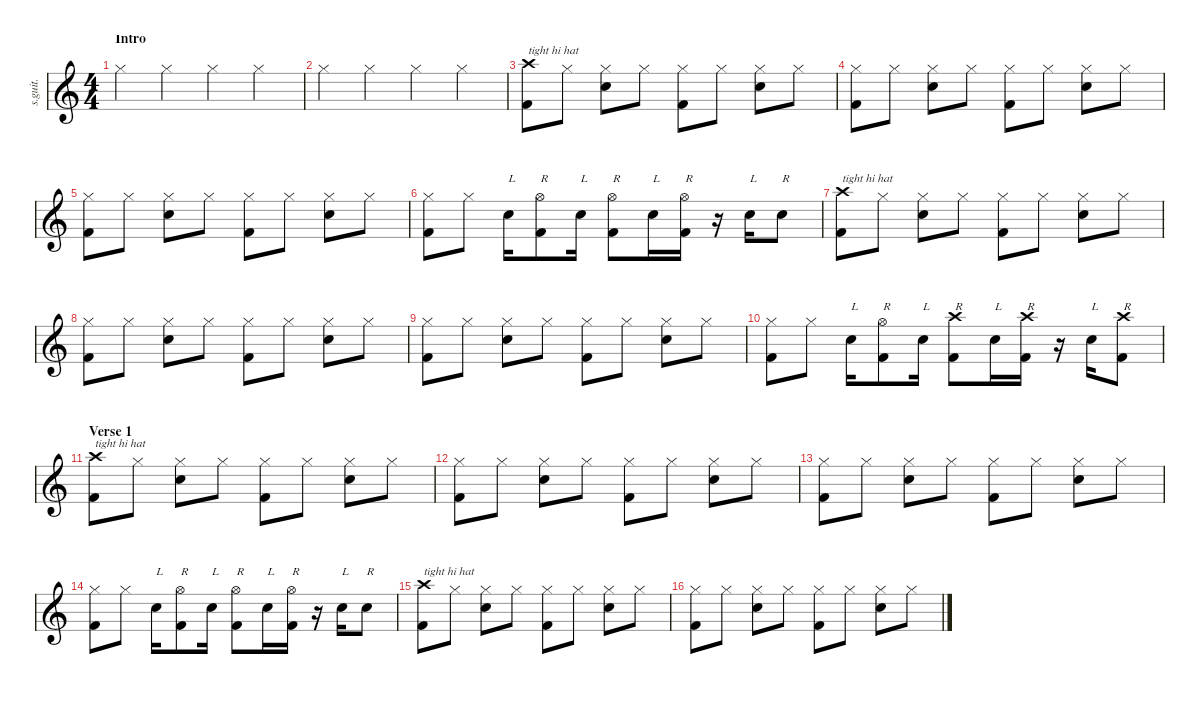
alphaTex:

\defaultSystemsLayout 4
\hideDynamics
\bracketExtendMode nobrackets
\track ("Phil Rudd - Drums" "s.guit.") {instrument percussion}
\staff {score}
\articulation defaults
\ts (4 4)
\beaming (8 2 2 2 2)
\section ("" "Intro")
\tempo (92 hide)
\clef g2
\ks c "Hi-Hat (closed)".4{lyrics (0 "") lyrics (1 "") lyrics (2 "") lyrics (3 "") lyrics (4 "") dy f} "Hi-Hat (closed)".4{lyrics (0 "") lyrics (1 "") lyrics (2 "") lyrics (3 "") lyrics (4 "")} "Hi-Hat (closed)".4{lyrics (0 "") lyrics (1 "") lyrics (2 "") lyrics (3 "") lyrics (4 "")} "Hi-Hat (closed)".4{lyrics (0 "") lyrics (1 "") lyrics (2 "") lyrics (3 "") lyrics (4 "")}
|
"Hi-Hat (closed)".4{lyrics (0 "") lyrics (1 "") lyrics (2 "") lyrics (3 "") lyrics (4 "")} "Hi-Hat (closed)".4{lyrics (0 "") lyrics (1 "") lyrics (2 "") lyrics (3 "") lyrics (4 "")} "Hi-Hat (closed)".4{lyrics (0 "") lyrics (1 "") lyrics (2 "") lyrics (3 "") lyrics (4 "")} "Hi-Hat (closed)".4{lyrics (0 "") lyrics (1 "") lyrics (2 "") lyrics (3 "") lyrics (4 "")} |
("Crash high (hit)" "Kick (hit) 2").8{txt "tight hi hat" lyrics (0 "") lyrics (1 "") lyrics (2 "") lyrics (3 "") lyrics (4 "")} "Hi-Hat (closed)".8{lyrics (0 "") lyrics (1 "") lyrics (2 "") lyrics (3 "") lyrics (4 "")} ("Hi-Hat (closed)" "Snare (hit) 2").8{lyrics (0 "") lyrics (1 "") lyrics (2 "") lyrics (3 "") lyrics (4 "")} "Hi-Hat (closed)".8{lyrics (0 "") lyrics (1 "") lyrics (2 "") lyrics (3 "") lyrics (4 "")} ("Hi-Hat (closed)" "Kick (hit) 2").8{lyrics (0 "") lyrics (1 "") lyrics (2 "") lyrics (3 "") lyrics (4 "")} "Hi-Hat (closed)".8{lyrics (0 "") lyrics (1 "") lyrics (2 "") lyrics (3 "") lyrics (4 "")} ("Hi-Hat (closed)" "Snare (hit) 2").8{lyrics (0 "") lyrics (1 "") lyrics (2 "") lyrics (3 "") lyrics (4 "")} "Hi-Hat (closed)".8{lyrics (0 "") lyrics (1 "") lyrics (2 "") lyrics (3 "") lyrics (4 "")} |
("Hi-Hat (closed)" "Kick (hit) 2").8{lyrics (0 "") lyrics (1 "") lyrics (2 "") lyrics (3 "") lyrics (4 "")} "Hi-Hat (closed)".8{lyrics (0 "") lyrics (1 "") lyrics (2 "") lyrics (3 "") lyrics (4 "")} ("Hi-Hat (closed)" "Snare (hit) 2").8{lyrics (0 "") lyrics (1 "") lyrics (2 "") lyrics (3 "") lyrics (4 "")} "Hi-Hat (closed)".8{lyrics (0 "") lyrics (1 "") lyrics (2 "") lyrics (3 "") lyrics (4 "")} ("Hi-Hat (closed)" "Kick (hit) 2").8{lyrics (0 "") lyrics (1 "") lyrics (2 "") lyrics (3 "") lyrics (4 "")} "Hi-Hat (closed)".8{lyrics (0 "") lyrics (1 "") lyrics (2 "") lyrics (3 "") lyrics (4 "")} ("Hi-Hat (closed)" "Snare (hit) 2").8{lyrics (0 "") lyrics (1 "") lyrics (2 "") lyrics (3 "") lyrics (4 "")} "Hi-Hat (closed)".8{lyrics (0 "") lyrics (1 "") lyrics (2 "") lyrics (3 "") lyrics (4 "")} |
("Hi-Hat (closed)" "Kick (hit) 2").8{lyrics (0 "") lyrics (1 "") lyrics (2 "") lyrics (3 "") lyrics (4 "")} "Hi-Hat (closed)".8{lyrics (0 "") lyrics (1 "") lyrics (2 "") lyrics (3 "") lyrics (4 "")} ("Hi-Hat (closed)" "Snare (hit) 2").8{lyrics (0 "") lyrics (1 "") lyrics (2 "") lyrics (3 "") lyrics (4 "")} "Hi-Hat (closed)".8{lyrics (0 "") lyrics (1 "") lyrics (2 "") lyrics (3 "") lyrics (4 "")} ("Hi-Hat (closed)" "Kick (hit) 2").8{lyrics (0 "") lyrics (1 "") lyrics (2 "") lyrics (3 "") lyrics (4 "")} "Hi-Hat (closed)".8{lyrics (0 "") lyrics (1 "") lyrics (2 "") lyrics (3 "") lyrics (4 "")} ("Hi-Hat (closed)" "Snare (hit) 2").8{lyrics (0 "") lyrics (1 "") lyrics (2 "") lyrics (3 "") lyrics (4 "")} "Hi-Hat (closed)".8{lyrics (0 "") lyrics (1 "") lyrics (2 "") lyrics (3 "") lyrics (4 "")} |
("Hi-Hat (closed)" "Kick (hit) 2").8{lyrics (0 "") lyrics (1 "") lyrics (2 "") lyrics (3 "") lyrics (4 "")} "Hi-Hat (closed)".8{lyrics (0 "") lyrics (1 "") lyrics (2 "") lyrics (3 "") lyrics (4 "")} "Snare (hit) 2".16{txt "L" lyrics (0 "") lyrics (1 "") lyrics (2 "") lyrics (3 "") lyrics (4 "")} ("Kick (hit) 2" "Hi-Hat (open)").8{txt "R" lyrics (0 "") lyrics (1 "") lyrics (2 "") lyrics (3 "") lyrics (4 "") dy p} "Snare (hit) 2".16{txt "L" lyrics (0 "") lyrics (1 "") lyrics (2 "") lyrics (3 "") lyrics (4 "") dy f} ("Kick (hit) 2" "Hi-Hat (open)").8{txt "R" lyrics (0 "") lyrics (1 "") lyrics (2 "") lyrics (3 "") lyrics (4 "") dy p} "Snare (hit) 2".16{txt "L" lyrics (0 "") lyrics (1 "") lyrics (2 "") lyrics (3 "") lyrics (4 "") dy f} ("Kick (hit) 2" "Hi-Hat (open)").16{txt "R" lyrics (0 "") lyrics (1 "") lyrics (2 "") lyrics (3 "") lyrics (4 "") dy p} r.16 "Snare (hit) 2".16{txt "L" lyrics (0 "") lyrics (1 "") lyrics (2 "") lyrics (3 "") lyrics (4 "") dy f} "Snare (hit) 2".8{txt "R" lyrics (0 "") lyrics (1 "") lyrics (2 "") lyrics (3 "") lyrics (4 "")} |
("Crash high (hit)" "Kick (hit) 2").8{txt "tight hi hat" lyrics (0 "") lyrics (1 "") lyrics (2 "") lyrics (3 "") lyrics (4 "")} "Hi-Hat (closed)".8{lyrics (0 "") lyrics (1 "") lyrics (2 "") lyrics (3 "") lyrics (4 "")} ("Hi-Hat (closed)" "Snare (hit) 2").8{lyrics (0 "") lyrics (1 "") lyrics (2 "") lyrics (3 "") lyrics (4 "")} "Hi-Hat (closed)".8{lyrics (0 "") lyrics (1 "") lyrics (2 "") lyrics (3 "") lyrics (4 "")} ("Hi-Hat (closed)" "Kick (hit) 2").8{lyrics (0 "") lyrics (1 "") lyrics (2 "") lyrics (3 "") lyrics (4 "")} "Hi-Hat (closed)".8{lyrics (0 "") lyrics (1 "") lyrics (2 "") lyrics (3 "") lyrics (4 "")} ("Hi-Hat (closed)" "Snare (hit) 2").8{lyrics (0 "") lyrics (1 "") lyrics (2 "") lyrics (3 "") lyrics (4 "")} "Hi-Hat (closed)".8{lyrics (0 "") lyrics (1 "") lyrics (2 "") lyrics (3 "") lyrics (4 "")} |
("Hi-Hat (closed)" "Kick (hit) 2").8{lyrics (0 "") lyrics (1 "") lyrics (2 "") lyrics (3 "") lyrics (4 "")} "Hi-Hat (closed)".8{lyrics (0 "") lyrics (1 "") lyrics (2 "") lyrics (3 "") lyrics (4 "")} ("Hi-Hat (closed)" "Snare (hit) 2").8{lyrics (0 "") lyrics (1 "") lyrics (2 "") lyrics (3 "") lyrics (4 "")} "Hi-Hat (closed)".8{lyrics (0 "") lyrics (1 "") lyrics (2 "") lyrics (3 "") lyrics (4 "")} ("Hi-Hat (closed)" "Kick (hit) 2").8{lyrics (0 "") lyrics (1 "") lyrics (2 "") lyrics (3 "") lyrics (4 "")} "Hi-Hat (closed)".8{lyrics (0 "") lyrics (1 "") lyrics (2 "") lyrics (3 "") lyrics (4 "")} ("Hi-Hat (closed)" "Snare (hit) 2").8{lyrics (0 "") lyrics (1 "") lyrics (2 "") lyrics (3 "") lyrics (4 "")} "Hi-Hat (closed)".8{lyrics (0 "") lyrics (1 "") lyrics (2 "") lyrics (3 "") lyrics (4 "")} |
("Hi-Hat (closed)" "Kick (hit) 2").8{lyrics (0 "") lyrics (1 "") lyrics (2 "") lyrics (3 "") lyrics (4 "")} "Hi-Hat (closed)".8{lyrics (0 "") lyrics (1 "") lyrics (2 "") lyrics (3 "") lyrics (4 "")} ("Hi-Hat (closed)" "Snare (hit) 2").8{lyrics (0 "") lyrics (1 "") lyrics (2 "") lyrics (3 "") lyrics (4 "")} "Hi-Hat (closed)".8{lyrics (0 "") lyrics (1 "") lyrics (2 "") lyrics (3 "") lyrics (4 "")} ("Hi-Hat (closed)" "Kick (hit) 2").8{lyrics (0 "") lyrics (1 "") lyrics (2 "") lyrics (3 "") lyrics (4 "")} "Hi-Hat (closed)".8{lyrics (0 "") lyrics (1 "") lyrics (2 "") lyrics (3 "") lyrics (4 "")} ("Hi-Hat (closed)" "Snare (hit) 2").8{lyrics (0 "") lyrics (1 "") lyrics (2 "") lyrics (3 "") lyrics (4 "")} "Hi-Hat (closed)".8{lyrics (0 "") lyrics (1 "") lyrics (2 "") lyrics (3 "") lyrics (4 "")} |
("Hi-Hat (closed)" "Kick (hit) 2").8{lyrics (0 "") lyrics (1 "") lyrics (2 "") lyrics (3 "") lyrics (4 "")} "Hi-Hat (closed)".8{lyrics (0 "") lyrics (1 "") lyrics (2 "") lyrics (3 "") lyrics (4 "")} "Snare (hit) 2".16{txt "L" lyrics (0 "") lyrics (1 "") lyrics (2 "") lyrics (3 "") lyrics (4 "")} ("Hi-Hat (open)" "Kick (hit) 2").8{txt "R" lyrics (0 "") lyrics (1 "") lyrics (2 "") lyrics (3 "") lyrics (4 "") dy p} "Snare (hit) 2".16{txt "L" lyrics (0 "") lyrics (1 "") lyrics (2 "") lyrics (3 "") lyrics (4 "") dy f} ("Crash high (hit)" "Kick (hit) 2").8{txt "R" lyrics (0 "") lyrics (1 "") lyrics (2 "") lyrics (3 "") lyrics (4 "")} "Snare (hit) 2".16{txt "L" lyrics (0 "") lyrics (1 "") lyrics (2 "") lyrics (3 "") lyrics (4 "")} ("Crash high (hit)" "Kick (hit) 2").16{txt "R" lyrics (0 "") lyrics (1 "") lyrics (2 "") lyrics (3 "") lyrics (4 "")} r.16 "Snare (hit) 2".16{txt "L" lyrics (0 "") lyrics (1 "") lyrics (2 "") lyrics (3 "") lyrics (4 "")} ("Crash high (hit)" "Kick (hit) 2").8{txt "R" lyrics (0 "") lyrics (1 "") lyrics (2 "") lyrics (3 "") lyrics (4 "")} |
\section ("" "Verse 1")
("Crash high (hit)" "Kick (hit) 2").8{txt "tight hi hat" lyrics (0 "") lyrics (1 "") lyrics (2 "") lyrics (3 "") lyrics (4 "")} "Hi-Hat (closed)".8{lyrics (0 "") lyrics (1 "") lyrics (2 "") lyrics (3 "") lyrics (4 "")} ("Hi-Hat (closed)" "Snare (hit) 2").8{lyrics (0 "") lyrics (1 "") lyrics (2 "") lyrics (3 "") lyrics (4 "")} "Hi-Hat (closed)".8{lyrics (0 "") lyrics (1 "") lyrics (2 "") lyrics (3 "") lyrics (4 "")} ("Hi-Hat (closed)" "Kick (hit) 2").8{lyrics (0 "") lyrics (1 "") lyrics (2 "") lyrics (3 "") lyrics (4 "")} "Hi-Hat (closed)".8{lyrics (0 "") lyrics (1 "") lyrics (2 "") lyrics (3 "") lyrics (4 "")} ("Hi-Hat (closed)" "Snare (hit) 2").8{lyrics (0 "") lyrics (1 "") lyrics (2 "") lyrics (3 "") lyrics (4 "")} "Hi-Hat (closed)".8{lyrics (0 "") lyrics (1 "") lyrics (2 "") lyrics (3 "") lyrics (4 "")} |
("Hi-Hat (closed)" "Kick (hit) 2").8{lyrics (0 "") lyrics (1 "") lyrics (2 "") lyrics (3 "") lyrics (4 "")} "Hi-Hat (closed)".8{lyrics (0 "") lyrics (1 "") lyrics (2 "") lyrics (3 "") lyrics (4 "")} ("Hi-Hat (closed)" "Snare (hit) 2").8{lyrics (0 "") lyrics (1 "") lyrics (2 "") lyrics (3 "") lyrics (4 "")} "Hi-Hat (closed)".8{lyrics (0 "") lyrics (1 "") lyrics (2 "") lyrics (3 "") lyrics (4 "")} ("Hi-Hat (closed)" "Kick (hit) 2").8{lyrics (0 "") lyrics (1 "") lyrics (2 "") lyrics (3 "") lyrics (4 "")} "Hi-Hat (closed)".8{lyrics (0 "") lyrics (1 "") lyrics (2 "") lyrics (3 "") lyrics (4 "")} ("Hi-Hat (closed)" "Snare (hit) 2").8{lyrics (0 "") lyrics (1 "") lyrics (2 "") lyrics (3 "") lyrics (4 "")} "Hi-Hat (closed)".8{lyrics (0 "") lyrics (1 "") lyrics (2 "") lyrics (3 "") lyrics (4 "")} |
("Hi-Hat (closed)" "Kick (hit) 2").8{lyrics (0 "") lyrics (1 "") lyrics (2 "") lyrics (3 "") lyrics (4 "")} "Hi-Hat (closed)".8{lyrics (0 "") lyrics (1 "") lyrics (2 "") lyrics (3 "") lyrics (4 "")} ("Hi-Hat (closed)" "Snare (hit) 2").8{lyrics (0 "") lyrics (1 "") lyrics (2 "") lyrics (3 "") lyrics (4 "")} "Hi-Hat (closed)".8{lyrics (0 "") lyrics (1 "") lyrics (2 "") lyrics (3 "") lyrics (4 "")} ("Hi-Hat (closed)" "Kick (hit) 2").8{lyrics (0 "") lyrics (1 "") lyrics (2 "") lyrics (3 "") lyrics (4 "")} "Hi-Hat (closed)".8{lyrics (0 "") lyrics (1 "") lyrics (2 "") lyrics (3 "") lyrics (4 "")} ("Hi-Hat (closed)" "Snare (hit) 2").8{lyrics (0 "") lyrics (1 "") lyrics (2 "") lyrics (3 "") lyrics (4 "")} "Hi-Hat (closed)".8{lyrics (0 "") lyrics (1 "") lyrics (2 "") lyrics (3 "") lyrics (4 "")} |
("Hi-Hat (closed)" "Kick (hit) 2").8{lyrics (0 "") lyrics (1 "") lyrics (2 "") lyrics (3 "") lyrics (4 "")} "Hi-Hat (closed)".8{lyrics (0 "") lyrics (1 "") lyrics (2 "") lyrics (3 "") lyrics (4 "")} "Snare (hit) 2".16{txt "L" lyrics (0 "") lyrics (1 "") lyrics (2 "") lyrics (3 "") lyrics (4 "")} ("Hi-Hat (open)" "Kick (hit) 2").8{txt "R" lyrics (0 "") lyrics (1 "") lyrics (2 "") lyrics (3 "") lyrics (4 "") dy p} "Snare (hit) 2".16{txt "L" lyrics (0 "") lyrics (1 "") lyrics (2 "") lyrics (3 "") lyrics (4 "") dy f} ("Hi-Hat (open)" "Kick (hit) 2").8{txt "R" lyrics (0 "") lyrics (1 "") lyrics (2 "") lyrics (3 "") lyrics (4 "") dy p} "Snare (hit) 2".16{txt "L" lyrics (0 "") lyrics (1 "") lyrics (2 "") lyrics (3 "") lyrics (4 "") dy f} ("Hi-Hat (open)" "Kick (hit) 2").16{txt "R" lyrics (0 "") lyrics (1 "") lyrics (2 "") lyrics (3 "") lyrics (4 "") dy p} r.16 "Snare (hit) 2".16{txt "L" lyrics (0 "") lyrics (1 "") lyrics (2 "") lyrics (3 "") lyrics (4 "") dy f} "Snare (hit) 2".8{txt "R" lyrics (0 "") lyrics (1 "") lyrics (2 "") lyrics (3 "") lyrics (4 "")} |
("Crash high (hit)" "Kick (hit) 2").8{txt "tight hi hat" lyrics (0 "") lyrics (1 "") lyrics (2 "") lyrics (3 "") lyrics (4 "")} "Hi-Hat (closed)".8{lyrics (0 "") lyrics (1 "") lyrics (2 "") lyrics (3 "") lyrics (4 "")} ("Hi-Hat (closed)" "Snare (hit) 2").8{lyrics (0 "") lyrics (1 "") lyrics (2 "") lyrics (3 "") lyrics (4 "")} "Hi-Hat (closed)".8{lyrics (0 "") lyrics (1 "") lyrics (2 "") lyrics (3 "") lyrics (4 "")} ("Hi-Hat (closed)" "Kick (hit) 2").8{lyrics (0 "") lyrics (1 "") lyrics (2 "") lyrics (3 "") lyrics (4 "")} "Hi-Hat (closed)".8{lyrics (0 "") lyrics (1 "") lyrics (2 "") lyrics (3 "") lyrics (4 "")} ("Hi-Hat (closed)" "Snare (hit) 2").8{lyrics (0 "") lyrics (1 "") lyrics (2 "") lyrics (3 "") lyrics (4 "")} "Hi-Hat (closed)".8{lyrics (0 "") lyrics (1 "") lyrics (2 "") lyrics (3 "") lyrics (4 "")} |
("Hi-Hat (closed)" "Kick (hit) 2").8{lyrics (0 "") lyrics (1 "") lyrics (2 "") lyrics (3 "") lyrics (4 "")} "Hi-Hat (closed)".8{lyrics (0 "") lyrics (1 "") lyrics (2 "") lyrics (3 "") lyrics (4 "")} ("Hi-Hat (closed)" "Snare (hit) 2").8{lyrics (0 "") lyrics (1 "") lyrics (2 "") lyrics (3 "") lyrics (4 "")} "Hi-Hat (closed)".8{lyrics (0 "") lyrics (1 "") lyrics (2 "") lyrics (3 "") lyrics (4 "")} ("Hi-Hat (closed)" "Kick (hit) 2").8{lyrics (0 "") lyrics (1 "") lyrics (2 "") lyrics (3 "") lyrics (4 "")} "Hi-Hat (closed)".8{lyrics (0 "") lyrics (1 "") lyrics (2 "") lyrics (3 "") lyrics (4 "")} ("Hi-Hat (closed)" "Snare (hit) 2").8{lyrics (0 "") lyrics (1 "") lyrics (2 "") lyrics (3 "") lyrics (4 "")} "Hi-Hat (closed)".8{lyrics (0 "") lyrics (1 "") lyrics (2 "") lyrics (3 "") lyrics (4 "")}
